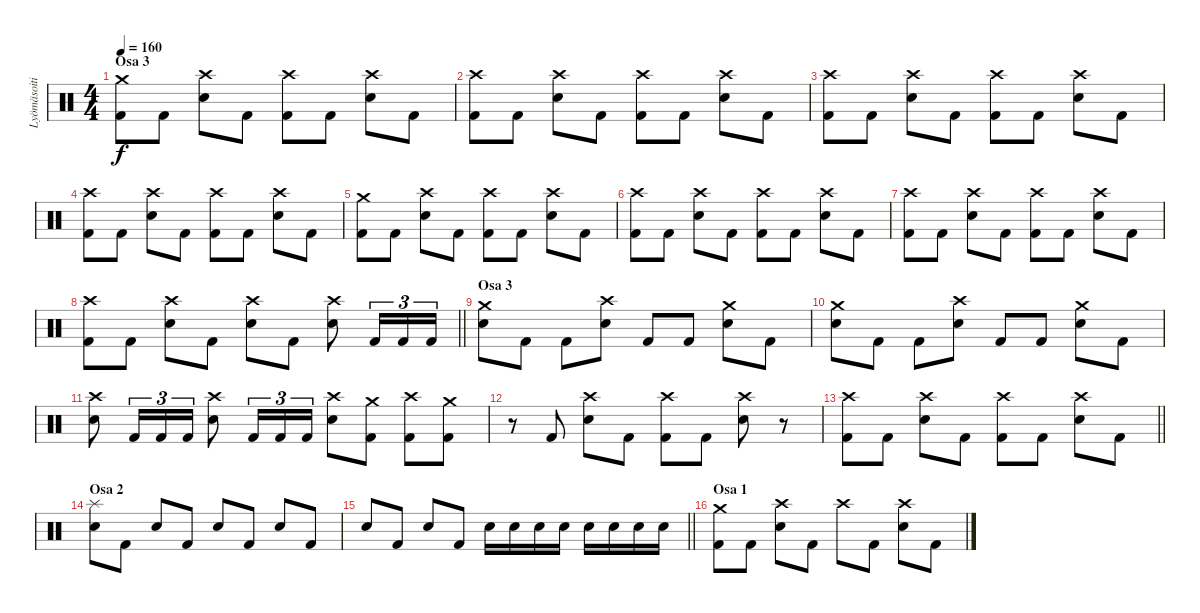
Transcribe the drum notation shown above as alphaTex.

\track ("Lyömäsoitin" "Lyömäsoiti") {instrument percussion}
\staff {score}
\articulation defaults
\ts (4 4)
\section ("" "Osa 3")
\tempo 160
\clef neutral
\ks c
("Crash medium (hit)" "Kick (hit) 2").8{dy f} "Kick (hit) 2".8 ("Crash high (hit)" "Snare (hit) 2").8 "Kick (hit) 2".8 ("Crash high (hit)" "Kick (hit) 2").8 "Kick (hit) 2".8 ("Crash high (hit)" "Snare (hit) 2").8 "Kick (hit) 2".8 |
("Crash high (hit)" "Kick (hit) 2").8 "Kick (hit) 2".8 ("Crash high (hit)" "Snare (hit) 2").8 "Kick (hit) 2".8 ("Crash high (hit)" "Kick (hit) 2").8 "Kick (hit) 2".8 ("Crash high (hit)" "Snare (hit) 2").8 "Kick (hit) 2".8 |
("Crash high (hit)" "Kick (hit) 2").8 "Kick (hit) 2".8 ("Crash high (hit)" "Snare (hit) 2").8 "Kick (hit) 2".8 ("Crash high (hit)" "Kick (hit) 2").8 "Kick (hit) 2".8 ("Crash high (hit)" "Snare (hit) 2").8 "Kick (hit) 2".8 |
("Crash high (hit)" "Kick (hit) 2").8 "Kick (hit) 2".8 ("Crash high (hit)" "Snare (hit) 2").8 "Kick (hit) 2".8 ("Crash high (hit)" "Kick (hit) 2").8 "Kick (hit) 2".8 ("Crash high (hit)" "Snare (hit) 2").8 "Kick (hit) 2".8 |
("Crash medium (hit)" "Kick (hit) 2").8 "Kick (hit) 2".8 ("Crash high (hit)" "Snare (hit) 2").8 "Kick (hit) 2".8 ("Crash high (hit)" "Kick (hit) 2").8 "Kick (hit) 2".8 ("Crash high (hit)" "Snare (hit) 2").8 "Kick (hit) 2".8 |
("Crash high (hit)" "Kick (hit) 2").8 "Kick (hit) 2".8 ("Crash high (hit)" "Snare (hit) 2").8 "Kick (hit) 2".8 ("Crash high (hit)" "Kick (hit) 2").8 "Kick (hit) 2".8 ("Crash high (hit)" "Snare (hit) 2").8 "Kick (hit) 2".8 |
("Crash high (hit)" "Kick (hit) 2").8 "Kick (hit) 2".8 ("Crash high (hit)" "Snare (hit) 2").8 "Kick (hit) 2".8 ("Crash high (hit)" "Kick (hit) 2").8 "Kick (hit) 2".8 ("Crash high (hit)" "Snare (hit) 2").8 "Kick (hit) 2".8 |
\barLineRight lightlight
("Crash high (hit)" "Kick (hit) 2").8 "Kick (hit) 2".8 ("Crash high (hit)" "Snare (hit) 2").8 "Kick (hit) 2".8 ("Crash high (hit)" "Snare (hit) 2").8 "Kick (hit) 2".8 ("Crash high (hit)" "Snare (hit) 2").8 "Kick (hit) 2".16{tu (3 2)} "Kick (hit) 2".16{tu (3 2)} "Kick (hit) 2".16{tu (3 2)} |
\section ("" "Osa 3")
("Crash medium (hit)" "Snare (hit) 2").8 "Kick (hit) 2".8 "Kick (hit) 2".8 ("Crash high (hit)" "Snare (hit) 2").8 "Kick (hit) 2".8 "Kick (hit) 2".8 ("Crash medium (hit)" "Snare (hit) 2").8 "Kick (hit) 2".8 |
("Crash medium (hit)" "Snare (hit) 2").8 "Kick (hit) 2".8 "Kick (hit) 2".8 ("Crash high (hit)" "Snare (hit) 2").8 "Kick (hit) 2".8 "Kick (hit) 2".8 ("Crash medium (hit)" "Snare (hit) 2").8 "Kick (hit) 2".8 |
("Crash high (hit)" "Snare (hit) 2").8 "Kick (hit) 2".16{tu (3 2)} "Kick (hit) 2".16{tu (3 2)} "Kick (hit) 2".16{tu (3 2)} ("Crash high (hit)" "Snare (hit) 2").8 "Kick (hit) 2".16{tu (3 2)} "Kick (hit) 2".16{tu (3 2)} "Kick (hit) 2".16{tu (3 2)} ("Crash high (hit)" "Snare (hit) 2").8 ("Crash medium (hit)" "Kick (hit) 2").8 ("Crash high (hit)" "Kick (hit) 2").8 ("Crash medium (hit)" "Kick (hit) 2").8 |
r.8 "Kick (hit) 2".8 ("Crash high (hit)" "Snare (hit) 2").8 "Kick (hit) 2".8 ("Crash high (hit)" "Kick (hit) 2").8 "Kick (hit) 2".8 ("Crash high (hit)" "Snare (hit) 2").8 r.8 |
\barLineRight lightlight
("Crash high (hit)" "Kick (hit) 2").8 "Kick (hit) 2".8 ("Crash high (hit)" "Snare (hit) 2").8 "Kick (hit) 2".8 ("Crash high (hit)" "Kick (hit) 2").8 "Kick (hit) 2".8 ("Crash high (hit)" "Snare (hit) 2").8 "Kick (hit) 2".8 |
\section ("" "Osa 2")
("Splash (hit)" "Snare (hit) 2").8 "Kick (hit) 2".8 "Snare (hit) 2".8 "Kick (hit) 2".8 "Snare (hit) 2".8 "Kick (hit) 2".8 "Snare (hit) 2".8 "Kick (hit) 2".8 |
\barLineRight lightlight "Snare (hit) 2".8 "Kick (hit) 2".8 "Snare (hit) 2".8 "Kick (hit) 2".8 "Snare (hit) 2".16 "Snare (hit) 2".16 "Snare (hit) 2".16 "Snare (hit) 2".16 "Snare (hit) 2".16 "Snare (hit) 2".16 "Snare (hit) 2".16 "Snare (hit) 2".16
|
\section ("" "Osa 1")
("Crash medium (hit)" "Kick (hit) 2").8 "Kick (hit) 2".8 ("Crash high (hit)" "Snare (hit) 2").8 "Kick (hit) 2".8 "Crash high (hit)".8 "Kick (hit) 2".8 ("Crash high (hit)" "Snare (hit) 2").8 "Kick (hit) 2".8
